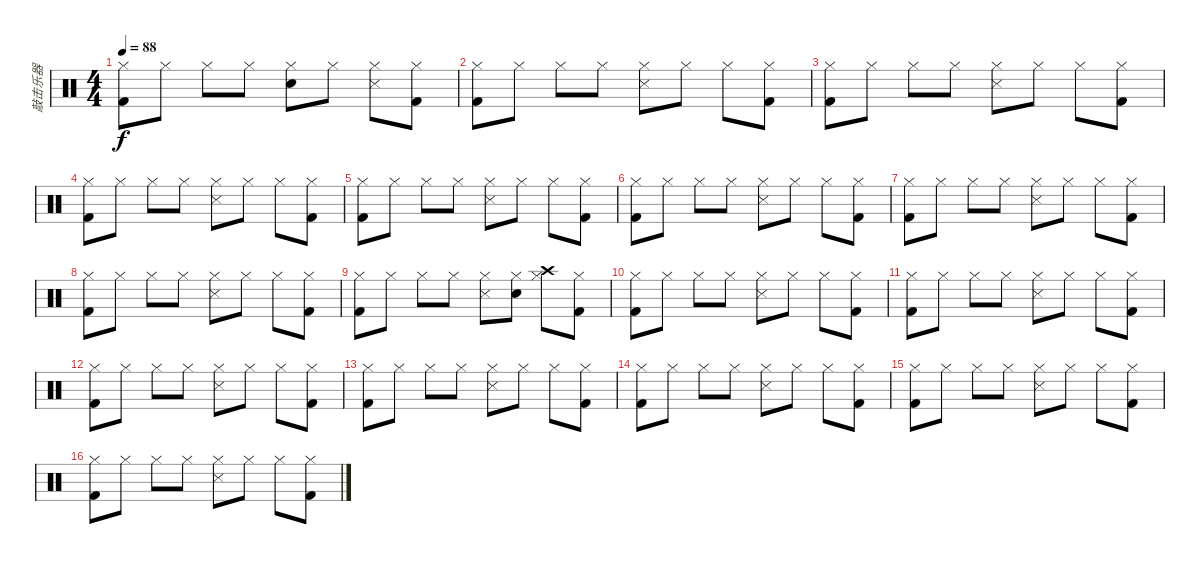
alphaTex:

\track ("敲击乐器" "敲击乐器") {instrument percussion}
\staff {score}
\articulation defaults
\ts (4 4)
\tempo 88
\clef neutral
\ks c
("Kick (hit) 2" "Hi-Hat (closed)").8{dy f} "Hi-Hat (closed)".8 "Hi-Hat (closed)".8 "Hi-Hat (closed)".8 ("Snare (hit) 2" "Hi-Hat (closed)").8 "Hi-Hat (closed)".8 ("Snare (side stick) 3" "Hi-Hat (closed)").8 ("Kick (hit) 2" "Hi-Hat (closed)").8 |
("Kick (hit) 2" "Hi-Hat (closed)").8 "Hi-Hat (closed)".8 "Hi-Hat (closed)".8 "Hi-Hat (closed)".8 ("Snare (side stick) 3" "Hi-Hat (closed)").8 "Hi-Hat (closed)".8 "Hi-Hat (closed)".8 ("Kick (hit) 2" "Hi-Hat (closed)").8 |
("Kick (hit) 2" "Hi-Hat (closed)").8 "Hi-Hat (closed)".8 "Hi-Hat (closed)".8 "Hi-Hat (closed)".8 ("Snare (side stick) 3" "Hi-Hat (closed)").8 "Hi-Hat (closed)".8 "Hi-Hat (closed)".8 ("Kick (hit) 2" "Hi-Hat (closed)").8 |
("Kick (hit) 2" "Hi-Hat (closed)").8 "Hi-Hat (closed)".8 "Hi-Hat (closed)".8 "Hi-Hat (closed)".8 ("Snare (side stick) 3" "Hi-Hat (closed)").8 "Hi-Hat (closed)".8 "Hi-Hat (closed)".8 ("Kick (hit) 2" "Hi-Hat (closed)").8 |
("Kick (hit) 2" "Hi-Hat (closed)").8 "Hi-Hat (closed)".8 "Hi-Hat (closed)".8 "Hi-Hat (closed)".8 ("Snare (side stick) 3" "Hi-Hat (closed)").8 "Hi-Hat (closed)".8 "Hi-Hat (closed)".8 ("Kick (hit) 2" "Hi-Hat (closed)").8 |
("Kick (hit) 2" "Hi-Hat (closed)").8 "Hi-Hat (closed)".8 "Hi-Hat (closed)".8 "Hi-Hat (closed)".8 ("Snare (side stick) 3" "Hi-Hat (closed)").8 "Hi-Hat (closed)".8 "Hi-Hat (closed)".8 ("Kick (hit) 2" "Hi-Hat (closed)").8 |
("Kick (hit) 2" "Hi-Hat (closed)").8 "Hi-Hat (closed)".8 "Hi-Hat (closed)".8 "Hi-Hat (closed)".8 ("Snare (side stick) 3" "Hi-Hat (closed)").8 "Hi-Hat (closed)".8 "Hi-Hat (closed)".8 ("Kick (hit) 2" "Hi-Hat (closed)").8 |
("Kick (hit) 2" "Hi-Hat (closed)").8 "Hi-Hat (closed)".8 "Hi-Hat (closed)".8 "Hi-Hat (closed)".8 ("Snare (side stick) 3" "Hi-Hat (closed)").8 "Hi-Hat (closed)".8 "Hi-Hat (closed)".8 ("Kick (hit) 2" "Hi-Hat (closed)").8 |
("Kick (hit) 2" "Hi-Hat (closed)").8 "Hi-Hat (closed)".8 "Hi-Hat (closed)".8 "Hi-Hat (closed)".8 ("Snare (side stick) 3" "Hi-Hat (closed)").8 ("Snare (hit) 2" "Hi-Hat (closed)").8 ("Crash high (hit)" "Hi-Hat (closed)").8 ("Kick (hit) 2" "Hi-Hat (closed)").8 |
("Kick (hit) 2" "Hi-Hat (closed)").8 "Hi-Hat (closed)".8 "Hi-Hat (closed)".8 "Hi-Hat (closed)".8 ("Snare (side stick) 3" "Hi-Hat (closed)").8 "Hi-Hat (closed)".8 "Hi-Hat (closed)".8 ("Kick (hit) 2" "Hi-Hat (closed)").8 |
("Kick (hit) 2" "Hi-Hat (closed)").8 "Hi-Hat (closed)".8 "Hi-Hat (closed)".8 "Hi-Hat (closed)".8 ("Snare (side stick) 3" "Hi-Hat (closed)").8 "Hi-Hat (closed)".8 "Hi-Hat (closed)".8 ("Kick (hit) 2" "Hi-Hat (closed)").8 |
("Kick (hit) 2" "Hi-Hat (closed)").8 "Hi-Hat (closed)".8 "Hi-Hat (closed)".8 "Hi-Hat (closed)".8 ("Snare (side stick) 3" "Hi-Hat (closed)").8 "Hi-Hat (closed)".8 "Hi-Hat (closed)".8 ("Kick (hit) 2" "Hi-Hat (closed)").8 |
("Kick (hit) 2" "Hi-Hat (closed)").8 "Hi-Hat (closed)".8 "Hi-Hat (closed)".8 "Hi-Hat (closed)".8 ("Snare (side stick) 3" "Hi-Hat (closed)").8 "Hi-Hat (closed)".8 "Hi-Hat (closed)".8 ("Kick (hit) 2" "Hi-Hat (closed)").8 |
("Kick (hit) 2" "Hi-Hat (closed)").8 "Hi-Hat (closed)".8 "Hi-Hat (closed)".8 "Hi-Hat (closed)".8 ("Snare (side stick) 3" "Hi-Hat (closed)").8 "Hi-Hat (closed)".8 "Hi-Hat (closed)".8 ("Kick (hit) 2" "Hi-Hat (closed)").8 |
("Kick (hit) 2" "Hi-Hat (closed)").8 "Hi-Hat (closed)".8 "Hi-Hat (closed)".8 "Hi-Hat (closed)".8 ("Snare (side stick) 3" "Hi-Hat (closed)").8 "Hi-Hat (closed)".8 "Hi-Hat (closed)".8 ("Kick (hit) 2" "Hi-Hat (closed)").8 |
("Kick (hit) 2" "Hi-Hat (closed)").8 "Hi-Hat (closed)".8 "Hi-Hat (closed)".8 "Hi-Hat (closed)".8 ("Snare (side stick) 3" "Hi-Hat (closed)").8 "Hi-Hat (closed)".8 "Hi-Hat (closed)".8 ("Kick (hit) 2" "Hi-Hat (closed)").8
